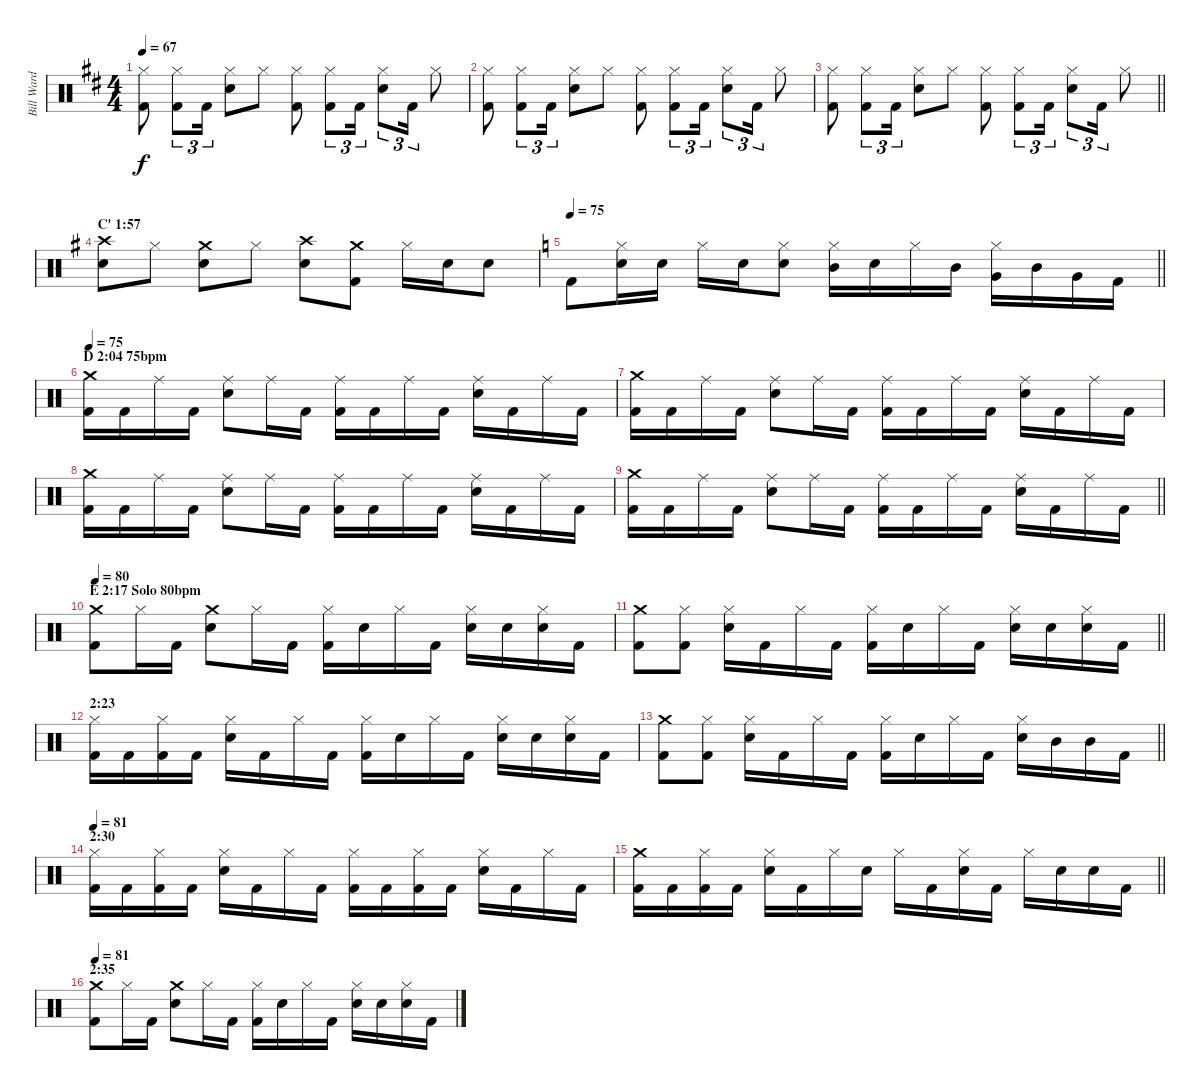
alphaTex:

\track ("Bill Ward (Drums)" "Bill Ward ") {instrument percussion}
\staff {score}
\articulation defaults
\ts (4 4)
\tempo 67
\clef neutral
\ks d
("Hi-Hat (closed)" "Kick (hit) 2").8{dy f} ("Hi-Hat (closed)" "Kick (hit) 2").8{tu (3 2)} "Kick (hit) 2".16{tu (3 2)} ("Hi-Hat (closed)" "Snare (hit) 2").8 "Hi-Hat (closed)".8 ("Hi-Hat (closed)" "Kick (hit) 2").8 ("Hi-Hat (closed)" "Kick (hit) 2").8{tu (3 2)} "Kick (hit) 2".16{tu (3 2)} ("Hi-Hat (closed)" "Snare (hit) 2").8{tu (3 2)} "Kick (hit) 2".16{tu (3 2)} "Hi-Hat (closed)".8 |
("Hi-Hat (closed)" "Kick (hit) 2").8 ("Hi-Hat (closed)" "Kick (hit) 2").8{tu (3 2)} "Kick (hit) 2".16{tu (3 2)} ("Hi-Hat (closed)" "Snare (hit) 2").8 "Hi-Hat (closed)".8 ("Hi-Hat (closed)" "Kick (hit) 2").8 ("Hi-Hat (closed)" "Kick (hit) 2").8{tu (3 2)} "Kick (hit) 2".16{tu (3 2)} ("Hi-Hat (closed)" "Snare (hit) 2").8{tu (3 2)} "Kick (hit) 2".16{tu (3 2)} "Hi-Hat (closed)".8 |
\barLineRight lightlight
("Hi-Hat (closed)" "Kick (hit) 2").8 ("Hi-Hat (closed)" "Kick (hit) 2").8{tu (3 2)} "Kick (hit) 2".16{tu (3 2)} ("Hi-Hat (closed)" "Snare (hit) 2").8 "Hi-Hat (closed)".8 ("Hi-Hat (closed)" "Kick (hit) 2").8 ("Hi-Hat (closed)" "Kick (hit) 2").8{tu (3 2)} "Kick (hit) 2".16{tu (3 2)} ("Hi-Hat (closed)" "Snare (hit) 2").8{tu (3 2)} "Kick (hit) 2".16{tu (3 2)} "Hi-Hat (closed)".8 |
\section ("" "C' 1:57")
\ks g
("Crash high (hit)" "Snare (hit) 2").8 "Hi-Hat (closed)".8 ("Crash medium (hit)" "Snare (hit) 2").8 "Hi-Hat (closed)".8 ("Crash high (hit)" "Snare (hit) 2").8 ("Crash medium (hit)" "Kick (hit) 2").8 "Hi-Hat (closed)".16 "Snare (hit) 2".16 "Snare (hit) 2".8 |
\tempo 75
\barLineRight lightlight
\ks c "Kick (hit) 2".8
("Hi-Hat (closed)" "Snare (hit) 2").16 "Snare (hit) 2".16 "Hi-Hat (closed)".16 "Snare (hit) 2".16 ("Hi-Hat (closed)" "Snare (hit) 2").8 ("Hi-Hat (closed)" "Mid Tom (hit)").16 "Snare (hit) 2".16 "Hi-Hat (closed)".16 "Mid Tom (hit)".16 ("Hi-Hat (closed)" "Very Low Tom (hit)").16 "Mid Tom (hit)".16 "Very Low Tom (hit)".16 "Kick (hit) 2".16 |
\section ("" "D 2:04 75bpm")
\tempo 75
("Crash medium (hit)" "Kick (hit) 2").16 "Kick (hit) 2".16 "Ride (middle)".16 "Kick (hit) 2".16 ("Ride (middle)" "Snare (hit) 2").8 "Ride (middle)".16 "Kick (hit) 2".16 ("Ride (middle)" "Kick (hit) 2").16 "Kick (hit) 2".16 "Ride (middle)".16 "Kick (hit) 2".16 ("Ride (middle)" "Snare (hit) 2").16 "Kick (hit) 2".16 "Ride (middle)".16 "Kick (hit) 2".16 |
("Crash medium (hit)" "Kick (hit) 2").16 "Kick (hit) 2".16 "Ride (middle)".16 "Kick (hit) 2".16 ("Ride (middle)" "Snare (hit) 2").8 "Ride (middle)".16 "Kick (hit) 2".16 ("Ride (middle)" "Kick (hit) 2").16 "Kick (hit) 2".16 "Ride (middle)".16 "Kick (hit) 2".16 ("Ride (middle)" "Snare (hit) 2").16 "Kick (hit) 2".16 "Ride (middle)".16 "Kick (hit) 2".16 |
("Crash medium (hit)" "Kick (hit) 2").16 "Kick (hit) 2".16 "Ride (middle)".16 "Kick (hit) 2".16 ("Ride (middle)" "Snare (hit) 2").8 "Ride (middle)".16 "Kick (hit) 2".16 ("Ride (middle)" "Kick (hit) 2").16 "Kick (hit) 2".16 "Ride (middle)".16 "Kick (hit) 2".16 ("Ride (middle)" "Snare (hit) 2").16 "Kick (hit) 2".16 "Ride (middle)".16 "Kick (hit) 2".16 |
\barLineRight lightlight
("Crash medium (hit)" "Kick (hit) 2").16 "Kick (hit) 2".16 "Ride (middle)".16 "Kick (hit) 2".16 ("Ride (middle)" "Snare (hit) 2").8 "Ride (middle)".16 "Kick (hit) 2".16 ("Ride (middle)" "Kick (hit) 2").16 "Kick (hit) 2".16 "Ride (middle)".16 "Kick (hit) 2".16 ("Ride (middle)" "Snare (hit) 2").16 "Kick (hit) 2".16 "Ride (middle)".16 "Kick (hit) 2".16 |
\section ("" "E 2:17 Solo 80bpm")
\tempo 80
("Crash medium (hit)" "Kick (hit) 2").8 "Hi-Hat (closed)".16 "Kick (hit) 2".16 ("Crash medium (hit)" "Snare (hit) 2").8 "Hi-Hat (closed)".16 "Kick (hit) 2".16 ("Hi-Hat (closed)" "Kick (hit) 2").16 "Snare (hit) 2".16 "Hi-Hat (closed)".16 "Kick (hit) 2".16 ("Hi-Hat (closed)" "Snare (hit) 2").16 "Snare (hit) 2".16 ("Hi-Hat (closed)" "Snare (hit) 2").16 "Kick (hit) 2".16 |
\barLineRight lightlight
("Crash medium (hit)" "Kick (hit) 2").8 ("Hi-Hat (closed)" "Kick (hit) 2").8 ("Hi-Hat (closed)" "Snare (hit) 2").16 "Kick (hit) 2".16 "Hi-Hat (closed)".16 "Kick (hit) 2".16 ("Hi-Hat (closed)" "Kick (hit) 2").16 "Snare (hit) 2".16 "Hi-Hat (closed)".16 "Kick (hit) 2".16 ("Hi-Hat (closed)" "Snare (hit) 2").16 "Snare (hit) 2".16 ("Hi-Hat (closed)" "Snare (hit) 2").16 "Kick (hit) 2".16 |
\section ("" "2:23")
("Hi-Hat (closed)" "Kick (hit) 2").16 "Kick (hit) 2".16 ("Hi-Hat (closed)" "Kick (hit) 2").16 "Kick (hit) 2".16 ("Hi-Hat (closed)" "Snare (hit) 2").16 "Kick (hit) 2".16 "Hi-Hat (closed)".16 "Kick (hit) 2".16 ("Hi-Hat (closed)" "Kick (hit) 2").16 "Snare (hit) 2".16 "Hi-Hat (closed)".16 "Kick (hit) 2".16 ("Hi-Hat (closed)" "Snare (hit) 2").16 "Snare (hit) 2".16 ("Hi-Hat (closed)" "Snare (hit) 2").16 "Kick (hit) 2".16 |
\barLineRight lightlight
("Crash medium (hit)" "Kick (hit) 2").8 ("Hi-Hat (closed)" "Kick (hit) 2").8 ("Hi-Hat (closed)" "Snare (hit) 2").16 "Kick (hit) 2".16 "Hi-Hat (closed)".16 "Kick (hit) 2".16 ("Hi-Hat (closed)" "Kick (hit) 2").16 "Snare (hit) 2".16 "Hi-Hat (closed)".16 "Kick (hit) 2".16 ("Hi-Hat (closed)" "Snare (hit) 2").16 "Mid Tom (hit)".16 "Mid Tom (hit)".16 "Kick (hit) 2".16 |
\section ("" "2:30")
\tempo 81
("Hi-Hat (closed)" "Kick (hit) 2").16 "Kick (hit) 2".16 ("Hi-Hat (closed)" "Kick (hit) 2").16 "Kick (hit) 2".16 ("Hi-Hat (closed)" "Snare (hit) 2").16 "Kick (hit) 2".16 "Hi-Hat (closed)".16 "Kick (hit) 2".16 ("Hi-Hat (closed)" "Kick (hit) 2").16 "Kick (hit) 2".16 ("Hi-Hat (closed)" "Kick (hit) 2").16 "Kick (hit) 2".16 ("Hi-Hat (closed)" "Snare (hit) 2").16 "Kick (hit) 2".16 "Hi-Hat (closed)".16 "Kick (hit) 2".16 |
\barLineRight lightlight
("Crash medium (hit)" "Kick (hit) 2").16 "Kick (hit) 2".16 ("Hi-Hat (closed)" "Kick (hit) 2").16 "Kick (hit) 2".16 ("Hi-Hat (closed)" "Snare (hit) 2").16 "Kick (hit) 2".16 "Hi-Hat (closed)".16 "Snare (hit) 2".16 "Hi-Hat (closed)".16 "Kick (hit) 2".16 ("Hi-Hat (closed)" "Snare (hit) 2").16 "Kick (hit) 2".16 "Hi-Hat (closed)".16 "Snare (hit) 2".16 "Snare (hit) 2".16 "Kick (hit) 2".16 |
\section ("" "2:35 ")
\tempo 81
("Crash medium (hit)" "Kick (hit) 2").8 "Hi-Hat (closed)".16 "Kick (hit) 2".16 ("Crash medium (hit)" "Snare (hit) 2").8 "Hi-Hat (closed)".16 "Kick (hit) 2".16 ("Hi-Hat (closed)" "Kick (hit) 2").16 "Snare (hit) 2".16 "Hi-Hat (closed)".16 "Kick (hit) 2".16 ("Hi-Hat (closed)" "Snare (hit) 2").16 "Snare (hit) 2".16 ("Hi-Hat (closed)" "Snare (hit) 2").16 "Kick (hit) 2".16
